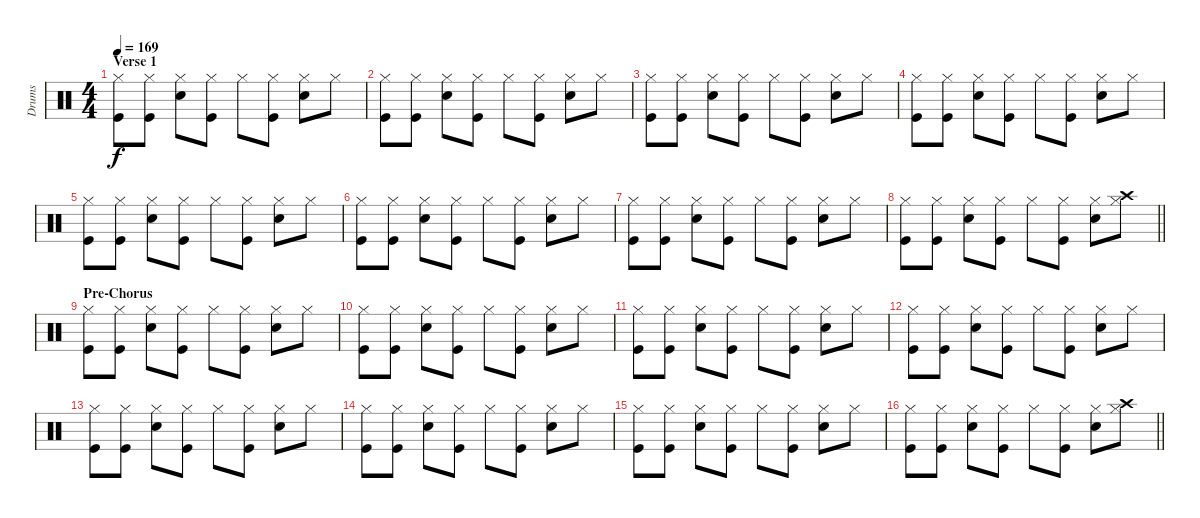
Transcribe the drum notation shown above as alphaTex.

\track ("Drums" "Drums") {instrument percussion}
\staff {score}
\articulation defaults
\ts (4 4)
\section ("" "Verse 1")
\tempo 169
\clef neutral
\ks c
("Hi-Hat (closed)" "Kick (hit)").8{dy f} ("Hi-Hat (closed)" "Kick (hit)").8 ("Hi-Hat (closed)" "Snare (hit) 2").8 ("Hi-Hat (closed)" "Kick (hit)").8 "Hi-Hat (closed)".8 ("Hi-Hat (closed)" "Kick (hit)").8 ("Hi-Hat (closed)" "Snare (hit) 2").8 "Hi-Hat (closed)".8 |
("Hi-Hat (closed)" "Kick (hit)").8 ("Hi-Hat (closed)" "Kick (hit)").8 ("Hi-Hat (closed)" "Snare (hit) 2").8 ("Hi-Hat (closed)" "Kick (hit)").8 "Hi-Hat (closed)".8 ("Hi-Hat (closed)" "Kick (hit)").8 ("Hi-Hat (closed)" "Snare (hit) 2").8 "Hi-Hat (closed)".8 |
("Hi-Hat (closed)" "Kick (hit)").8 ("Hi-Hat (closed)" "Kick (hit)").8 ("Hi-Hat (closed)" "Snare (hit) 2").8 ("Hi-Hat (closed)" "Kick (hit)").8 "Hi-Hat (closed)".8 ("Hi-Hat (closed)" "Kick (hit)").8 ("Hi-Hat (closed)" "Snare (hit) 2").8 "Hi-Hat (closed)".8 |
("Hi-Hat (closed)" "Kick (hit)").8 ("Hi-Hat (closed)" "Kick (hit)").8 ("Hi-Hat (closed)" "Snare (hit) 2").8 ("Hi-Hat (closed)" "Kick (hit)").8 "Hi-Hat (closed)".8 ("Hi-Hat (closed)" "Kick (hit)").8 ("Hi-Hat (closed)" "Snare (hit) 2").8 "Hi-Hat (closed)".8 |
("Hi-Hat (closed)" "Kick (hit)").8 ("Hi-Hat (closed)" "Kick (hit)").8 ("Hi-Hat (closed)" "Snare (hit) 2").8 ("Hi-Hat (closed)" "Kick (hit)").8 "Hi-Hat (closed)".8 ("Hi-Hat (closed)" "Kick (hit)").8 ("Hi-Hat (closed)" "Snare (hit) 2").8 "Hi-Hat (closed)".8 |
("Hi-Hat (closed)" "Kick (hit)").8 ("Hi-Hat (closed)" "Kick (hit)").8 ("Hi-Hat (closed)" "Snare (hit) 2").8 ("Hi-Hat (closed)" "Kick (hit)").8 "Hi-Hat (closed)".8 ("Hi-Hat (closed)" "Kick (hit)").8 ("Hi-Hat (closed)" "Snare (hit) 2").8 "Hi-Hat (closed)".8 |
("Hi-Hat (closed)" "Kick (hit)").8 ("Hi-Hat (closed)" "Kick (hit)").8 ("Hi-Hat (closed)" "Snare (hit) 2").8 ("Hi-Hat (closed)" "Kick (hit)").8 "Hi-Hat (closed)".8 ("Hi-Hat (closed)" "Kick (hit)").8 ("Hi-Hat (closed)" "Snare (hit) 2").8 "Hi-Hat (closed)".8 |
\barLineRight lightlight
("Hi-Hat (closed)" "Kick (hit)").8 ("Hi-Hat (closed)" "Kick (hit)").8 ("Hi-Hat (closed)" "Snare (hit) 2").8 ("Hi-Hat (closed)" "Kick (hit)").8 "Hi-Hat (closed)".8 ("Hi-Hat (closed)" "Kick (hit)").8 ("Hi-Hat (closed)" "Snare (hit) 2").8 ("Hi-Hat (closed)" "Crash high (hit)").8 |
\section ("" "Pre-Chorus")
("Hi-Hat (closed)" "Kick (hit)").8 ("Hi-Hat (closed)" "Kick (hit)").8 ("Hi-Hat (closed)" "Snare (hit) 2").8 ("Hi-Hat (closed)" "Kick (hit)").8 "Hi-Hat (closed)".8 ("Hi-Hat (closed)" "Kick (hit)").8 ("Hi-Hat (closed)" "Snare (hit) 2").8 "Hi-Hat (closed)".8 |
("Hi-Hat (closed)" "Kick (hit)").8 ("Hi-Hat (closed)" "Kick (hit)").8 ("Hi-Hat (closed)" "Snare (hit) 2").8 ("Hi-Hat (closed)" "Kick (hit)").8 "Hi-Hat (closed)".8 ("Hi-Hat (closed)" "Kick (hit)").8 ("Hi-Hat (closed)" "Snare (hit) 2").8 "Hi-Hat (closed)".8 |
("Hi-Hat (closed)" "Kick (hit)").8 ("Hi-Hat (closed)" "Kick (hit)").8 ("Hi-Hat (closed)" "Snare (hit) 2").8 ("Hi-Hat (closed)" "Kick (hit)").8 "Hi-Hat (closed)".8 ("Hi-Hat (closed)" "Kick (hit)").8 ("Hi-Hat (closed)" "Snare (hit) 2").8 "Hi-Hat (closed)".8 |
("Hi-Hat (closed)" "Kick (hit)").8 ("Hi-Hat (closed)" "Kick (hit)").8 ("Hi-Hat (closed)" "Snare (hit) 2").8 ("Hi-Hat (closed)" "Kick (hit)").8 "Hi-Hat (closed)".8 ("Hi-Hat (closed)" "Kick (hit)").8 ("Hi-Hat (closed)" "Snare (hit) 2").8 "Hi-Hat (closed)".8 |
("Hi-Hat (closed)" "Kick (hit)").8 ("Hi-Hat (closed)" "Kick (hit)").8 ("Hi-Hat (closed)" "Snare (hit) 2").8 ("Hi-Hat (closed)" "Kick (hit)").8 "Hi-Hat (closed)".8 ("Hi-Hat (closed)" "Kick (hit)").8 ("Hi-Hat (closed)" "Snare (hit) 2").8 "Hi-Hat (closed)".8 |
("Hi-Hat (closed)" "Kick (hit)").8 ("Hi-Hat (closed)" "Kick (hit)").8 ("Hi-Hat (closed)" "Snare (hit) 2").8 ("Hi-Hat (closed)" "Kick (hit)").8 "Hi-Hat (closed)".8 ("Hi-Hat (closed)" "Kick (hit)").8 ("Hi-Hat (closed)" "Snare (hit) 2").8 "Hi-Hat (closed)".8 |
("Hi-Hat (closed)" "Kick (hit)").8 ("Hi-Hat (closed)" "Kick (hit)").8 ("Hi-Hat (closed)" "Snare (hit) 2").8 ("Hi-Hat (closed)" "Kick (hit)").8 "Hi-Hat (closed)".8 ("Hi-Hat (closed)" "Kick (hit)").8 ("Hi-Hat (closed)" "Snare (hit) 2").8 "Hi-Hat (closed)".8 |
\barLineRight lightlight
("Hi-Hat (closed)" "Kick (hit)").8 ("Hi-Hat (closed)" "Kick (hit)").8 ("Hi-Hat (closed)" "Snare (hit) 2").8 ("Hi-Hat (closed)" "Kick (hit)").8 "Hi-Hat (closed)".8 ("Hi-Hat (closed)" "Kick (hit)").8 ("Hi-Hat (closed)" "Snare (hit) 2").8 ("Hi-Hat (closed)" "Crash high (hit)").8
